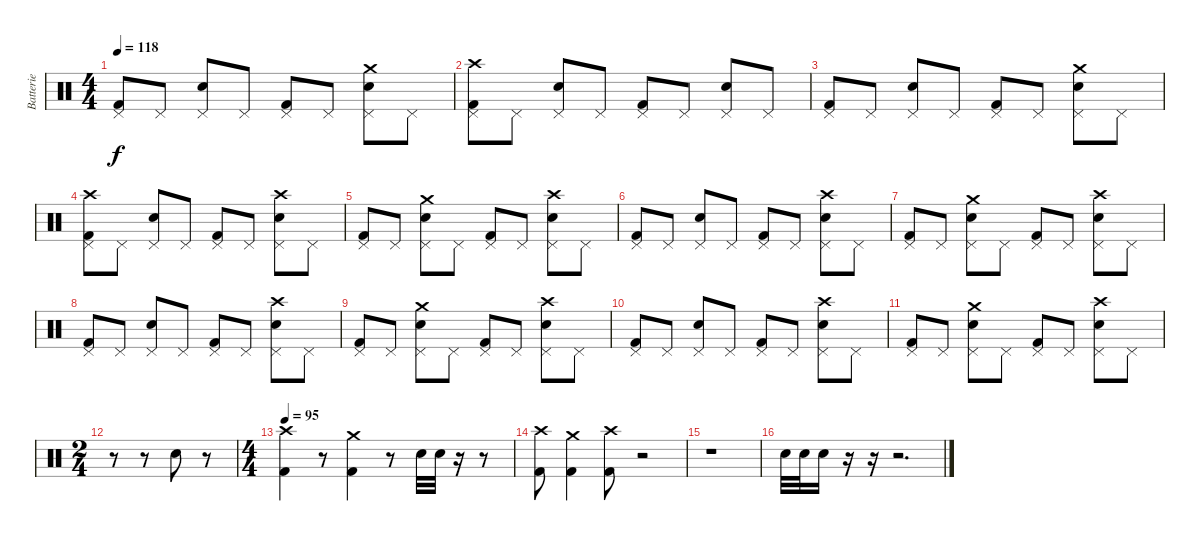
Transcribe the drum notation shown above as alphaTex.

\track ("Batterie" "Batterie") {instrument percussion}
\staff {score}
\articulation defaults
\ts (4 4)
\tempo 118
\clef neutral
\ks c
("Pedal Hi-Hat (hit)" "Kick (hit) 2").8{dy f} "Pedal Hi-Hat (hit)".8 ("Pedal Hi-Hat (hit)" "Snare (hit) 2").8 "Pedal Hi-Hat (hit)".8 ("Pedal Hi-Hat (hit)" "Kick (hit) 2").8 "Pedal Hi-Hat (hit)".8 ("Pedal Hi-Hat (hit)" "Crash medium (hit)" "Snare (hit) 2").8 "Pedal Hi-Hat (hit)".8 |
("Pedal Hi-Hat (hit)" "Crash high (hit)" "Kick (hit) 2").8 "Pedal Hi-Hat (hit)".8 ("Pedal Hi-Hat (hit)" "Snare (hit) 2").8 "Pedal Hi-Hat (hit)".8 ("Pedal Hi-Hat (hit)" "Kick (hit) 2").8 "Pedal Hi-Hat (hit)".8 ("Pedal Hi-Hat (hit)" "Snare (hit) 2").8 "Pedal Hi-Hat (hit)".8 |
("Pedal Hi-Hat (hit)" "Kick (hit) 2").8 "Pedal Hi-Hat (hit)".8 ("Pedal Hi-Hat (hit)" "Snare (hit) 2").8 "Pedal Hi-Hat (hit)".8 ("Pedal Hi-Hat (hit)" "Kick (hit) 2").8 "Pedal Hi-Hat (hit)".8 ("Pedal Hi-Hat (hit)" "Crash medium (hit)" "Snare (hit) 2").8 "Pedal Hi-Hat (hit)".8 |
("Pedal Hi-Hat (hit)" "Crash high (hit)" "Kick (hit) 2").8 "Pedal Hi-Hat (hit)".8 ("Pedal Hi-Hat (hit)" "Snare (hit) 2").8 "Pedal Hi-Hat (hit)".8 ("Pedal Hi-Hat (hit)" "Kick (hit) 2").8 "Pedal Hi-Hat (hit)".8 ("Pedal Hi-Hat (hit)" "Crash high (hit)" "Snare (hit) 2").8 "Pedal Hi-Hat (hit)".8 |
("Pedal Hi-Hat (hit)" "Kick (hit) 2").8 "Pedal Hi-Hat (hit)".8 ("Pedal Hi-Hat (hit)" "Crash medium (hit)" "Snare (hit) 2").8 "Pedal Hi-Hat (hit)".8 ("Pedal Hi-Hat (hit)" "Kick (hit) 2").8 "Pedal Hi-Hat (hit)".8 ("Pedal Hi-Hat (hit)" "Crash high (hit)" "Snare (hit) 2").8 "Pedal Hi-Hat (hit)".8 |
("Pedal Hi-Hat (hit)" "Kick (hit) 2").8 "Pedal Hi-Hat (hit)".8 ("Pedal Hi-Hat (hit)" "Snare (hit) 2").8 "Pedal Hi-Hat (hit)".8 ("Pedal Hi-Hat (hit)" "Kick (hit) 2").8 "Pedal Hi-Hat (hit)".8 ("Pedal Hi-Hat (hit)" "Crash high (hit)" "Snare (hit) 2").8 "Pedal Hi-Hat (hit)".8 |
("Pedal Hi-Hat (hit)" "Kick (hit) 2").8 "Pedal Hi-Hat (hit)".8 ("Pedal Hi-Hat (hit)" "Crash medium (hit)" "Snare (hit) 2").8 "Pedal Hi-Hat (hit)".8 ("Pedal Hi-Hat (hit)" "Kick (hit) 2").8 "Pedal Hi-Hat (hit)".8 ("Pedal Hi-Hat (hit)" "Crash high (hit)" "Snare (hit) 2").8 "Pedal Hi-Hat (hit)".8 |
("Pedal Hi-Hat (hit)" "Kick (hit) 2").8 "Pedal Hi-Hat (hit)".8 ("Pedal Hi-Hat (hit)" "Snare (hit) 2").8 "Pedal Hi-Hat (hit)".8 ("Pedal Hi-Hat (hit)" "Kick (hit) 2").8 "Pedal Hi-Hat (hit)".8 ("Pedal Hi-Hat (hit)" "Crash high (hit)" "Snare (hit) 2").8 "Pedal Hi-Hat (hit)".8 |
("Pedal Hi-Hat (hit)" "Kick (hit) 2").8 "Pedal Hi-Hat (hit)".8 ("Pedal Hi-Hat (hit)" "Crash medium (hit)" "Snare (hit) 2").8 "Pedal Hi-Hat (hit)".8 ("Pedal Hi-Hat (hit)" "Kick (hit) 2").8 "Pedal Hi-Hat (hit)".8 ("Pedal Hi-Hat (hit)" "Crash high (hit)" "Snare (hit) 2").8 "Pedal Hi-Hat (hit)".8 |
("Pedal Hi-Hat (hit)" "Kick (hit) 2").8 "Pedal Hi-Hat (hit)".8 ("Pedal Hi-Hat (hit)" "Snare (hit) 2").8 "Pedal Hi-Hat (hit)".8 ("Pedal Hi-Hat (hit)" "Kick (hit) 2").8 "Pedal Hi-Hat (hit)".8 ("Pedal Hi-Hat (hit)" "Crash high (hit)" "Snare (hit) 2").8 "Pedal Hi-Hat (hit)".8 |
("Pedal Hi-Hat (hit)" "Kick (hit) 2").8 "Pedal Hi-Hat (hit)".8 ("Pedal Hi-Hat (hit)" "Crash medium (hit)" "Snare (hit) 2").8 "Pedal Hi-Hat (hit)".8 ("Pedal Hi-Hat (hit)" "Kick (hit) 2").8 "Pedal Hi-Hat (hit)".8 ("Pedal Hi-Hat (hit)" "Crash high (hit)" "Snare (hit) 2").8 "Pedal Hi-Hat (hit)".8 |
\ts (2 4)
r.8 r.8 "Snare (hit) 2".8 r.8 |
\ts (4 4)
\tempo 95
("Crash high (hit)" "Kick (hit) 2").4 r.8 ("Crash medium (hit)" "Kick (hit) 2").4 r.8 "Snare (hit) 2".32 "Snare (hit) 2".32 r.16 r.8 |
("Crash high (hit)" "Kick (hit) 2").8 ("Crash medium (hit)" "Kick (hit) 2").4 ("Crash high (hit)" "Kick (hit) 2").8 r.2 |
r.1 |
"Snare (hit) 2".32 "Snare (hit) 2".32 "Snare (hit) 2".16 r.16 r.16 r.2{d}
